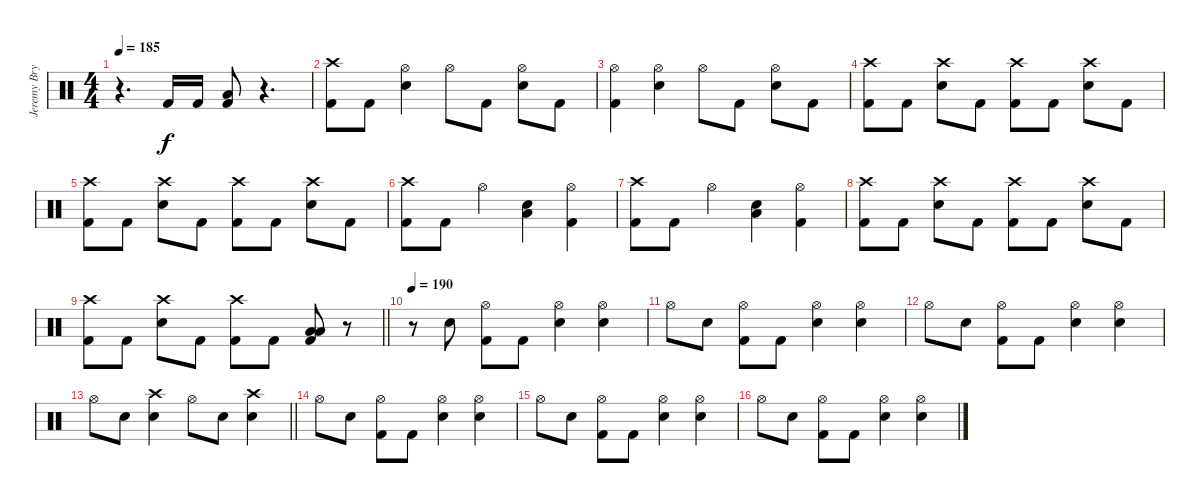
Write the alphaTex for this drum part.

\track ("Jeremy Bryan - Drums" "Jeremy Bry") {instrument percussion}
\staff {score}
\articulation defaults
\ts (4 4)
\tempo 185
\clef neutral
\ks c
r.4{d dy f} "Kick (hit) 2".16 "Kick (hit) 2".16 ("Low Floor Tom (hit)" "Kick (hit) 2").8 r.4{d} |
("Crash high (hit)" "Kick (hit) 2").8 "Kick (hit) 2".8 ("Hi-Hat (open)" "Electric Snare (hit)").4 "Hi-Hat (open)".8 "Kick (hit) 2".8 ("Hi-Hat (open)" "Electric Snare (hit)").8 "Kick (hit) 2".8 |
("Hi-Hat (open)" "Kick (hit) 2").4 ("Hi-Hat (open)" "Electric Snare (hit)").4 "Hi-Hat (open)".8 "Kick (hit) 2".8 ("Hi-Hat (open)" "Electric Snare (hit)").8 "Kick (hit) 2".8 |
("Crash high (hit)" "Kick (hit) 2").8 "Kick (hit) 2".8 ("Crash high (hit)" "Electric Snare (hit)").8 "Kick (hit) 2".8 ("Crash high (hit)" "Kick (hit) 2").8 "Kick (hit) 2".8 ("Crash high (hit)" "Electric Snare (hit)").8 "Kick (hit) 2".8 |
("Crash high (hit)" "Kick (hit) 2").8 "Kick (hit) 2".8 ("Crash high (hit)" "Electric Snare (hit)").8 "Kick (hit) 2".8 ("Crash high (hit)" "Kick (hit) 2").8 "Kick (hit) 2".8 ("Crash high (hit)" "Electric Snare (hit)").8 "Kick (hit) 2".8 |
("Crash high (hit)" "Kick (hit) 2").8 "Kick (hit) 2".8 "Hi-Hat (open)".4 ("Low Floor Tom (hit)" "Electric Snare (hit)").4 ("Hi-Hat (open)" "Kick (hit) 2").4 |
("Crash high (hit)" "Kick (hit) 2").8 "Kick (hit) 2".8 "Hi-Hat (open)".4 ("Low Floor Tom (hit)" "Electric Snare (hit)").4 ("Hi-Hat (open)" "Kick (hit) 2").4 |
("Crash high (hit)" "Kick (hit) 2").8 "Kick (hit) 2".8 ("Crash high (hit)" "Electric Snare (hit)").8 "Kick (hit) 2".8 ("Crash high (hit)" "Kick (hit) 2").8 "Kick (hit) 2".8 ("Crash high (hit)" "Electric Snare (hit)").8 "Kick (hit) 2".8 |
\barLineRight lightlight
("Crash high (hit)" "Kick (hit) 2").8 "Kick (hit) 2".8 ("Crash high (hit)" "Electric Snare (hit)").8 "Kick (hit) 2".8 ("Crash high (hit)" "Kick (hit) 2").8 "Kick (hit) 2".8 ("Low Tom (hit)" "Low Floor Tom (hit)" "Kick (hit) 2").8 r.8 |
\tempo 190
r.8 "Electric Snare (hit)".8 ("Hi-Hat (open)" "Kick (hit) 2").8 "Kick (hit) 2".8 ("Hi-Hat (open)" "Electric Snare (hit)").4 ("Hi-Hat (open)" "Electric Snare (hit)").4 |
"Hi-Hat (open)".8 "Electric Snare (hit)".8 ("Hi-Hat (open)" "Kick (hit) 2").8 "Kick (hit) 2".8 ("Hi-Hat (open)" "Electric Snare (hit)").4 ("Hi-Hat (open)" "Electric Snare (hit)").4 |
"Hi-Hat (open)".8 "Electric Snare (hit)".8 ("Hi-Hat (open)" "Kick (hit) 2").8 "Kick (hit) 2".8 ("Hi-Hat (open)" "Electric Snare (hit)").4 ("Hi-Hat (open)" "Electric Snare (hit)").4 |
\barLineRight lightlight "Hi-Hat (open)".8 "Electric Snare (hit)".8
("Crash high (hit)" "Electric Snare (hit)").4 "Hi-Hat (open)".8 "Electric Snare (hit)".8 ("Crash high (hit)" "Electric Snare (hit)").4 |
"Hi-Hat (open)".8 "Electric Snare (hit)".8 ("Hi-Hat (open)" "Kick (hit) 2").8 "Kick (hit) 2".8 ("Hi-Hat (open)" "Electric Snare (hit)").4 ("Hi-Hat (open)" "Electric Snare (hit)").4 |
"Hi-Hat (open)".8 "Electric Snare (hit)".8 ("Hi-Hat (open)" "Kick (hit) 2").8 "Kick (hit) 2".8 ("Hi-Hat (open)" "Electric Snare (hit)").4 ("Hi-Hat (open)" "Electric Snare (hit)").4 |
"Hi-Hat (open)".8 "Electric Snare (hit)".8 ("Hi-Hat (open)" "Kick (hit) 2").8 "Kick (hit) 2".8 ("Hi-Hat (open)" "Electric Snare (hit)").4 ("Hi-Hat (open)" "Electric Snare (hit)").4
